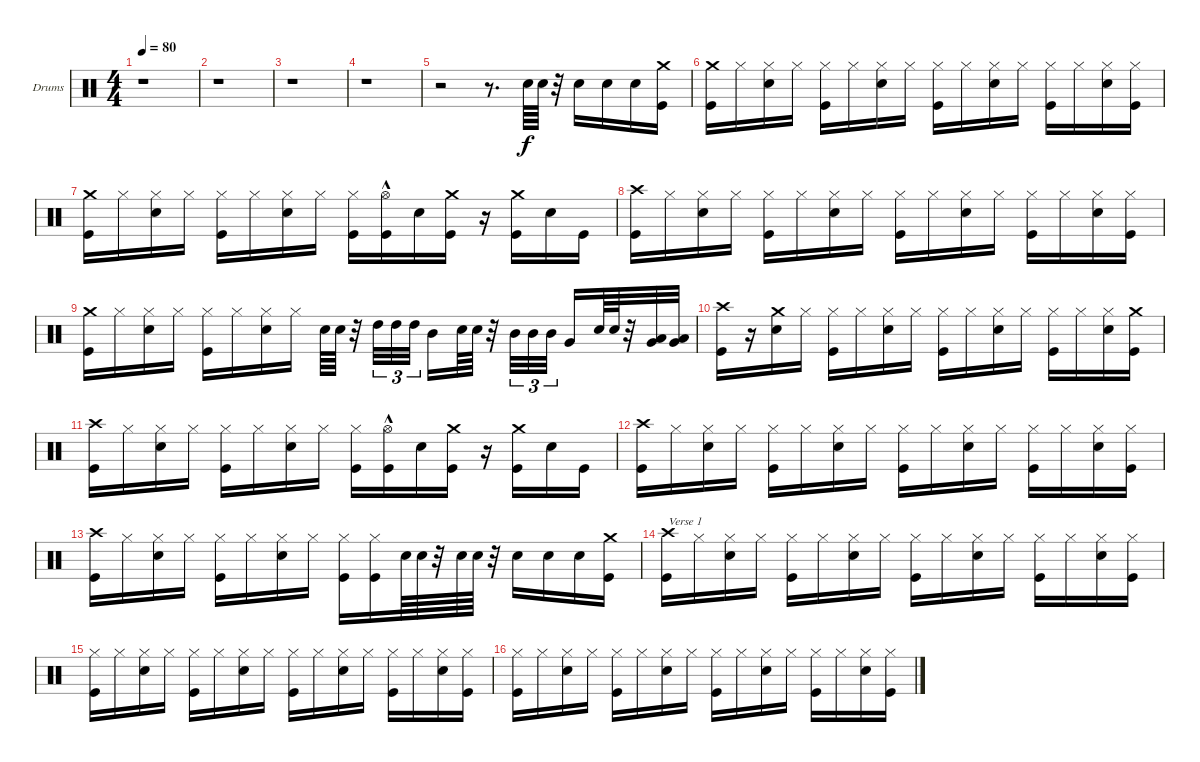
\defaultSystemsLayout 4
\bracketExtendMode groupsimilarinstruments
\firstSystemTrackNameOrientation horizontal
\otherSystemsTrackNameOrientation horizontal
\track ("Francesco Jovino" "Drums") {instrument percussion}
\staff {score}
\articulation defaults
\ts (4 4)
\tempo 80
\clef neutral
\ks c
r.1{dy f} |
r.1 |
r.1 |
r.1 |
r.2 r.8{d} "Snare (hit) 2".64 "Snare (hit) 2".64 r.32 "Snare (hit) 2".16 "Snare (hit) 2".16 "Snare (hit) 2".16 ("Kick (hit)" "Crash medium (hit)").16 |
("Kick (hit)" "Crash medium (hit)").16 "Hi-Hat (closed)".16 ("Snare (hit) 2" "Hi-Hat (closed)").16 "Hi-Hat (closed)".16 ("Kick (hit)" "Hi-Hat (closed)").16 "Hi-Hat (closed)".16 ("Snare (hit) 2" "Hi-Hat (closed)").16 "Hi-Hat (closed)".16 ("Kick (hit)" "Hi-Hat (closed)").16 "Hi-Hat (closed)".16 ("Snare (hit) 2" "Hi-Hat (closed)").16 "Hi-Hat (closed)".16 ("Kick (hit)" "Hi-Hat (closed)").16 "Hi-Hat (closed)".16 ("Snare (hit) 2" "Hi-Hat (closed)").16 ("Kick (hit)" "Hi-Hat (closed)").16 |
("Kick (hit)" "Crash medium (hit)").16 "Hi-Hat (closed)".16 ("Snare (hit) 2" "Hi-Hat (closed)").16 "Hi-Hat (closed)".16 ("Kick (hit)" "Hi-Hat (closed)").16 "Hi-Hat (closed)".16 ("Snare (hit) 2" "Hi-Hat (closed)").16 "Hi-Hat (closed)".16 ("Kick (hit)" "Hi-Hat (closed)").16 ("Hi-Hat (open)"{hac} "Kick (hit)").16 "Snare (hit) 2".16 ("Kick (hit)" "Crash medium (hit)").16 r.16 ("Kick (hit)" "Crash medium (hit)").16 "Snare (hit) 2".16 "Kick (hit)".16 |
("Kick (hit)" "Crash high (hit)").16 "Hi-Hat (closed)".16 ("Snare (hit) 2" "Hi-Hat (closed)").16 "Hi-Hat (closed)".16 ("Kick (hit)" "Hi-Hat (closed)").16 "Hi-Hat (closed)".16 ("Snare (hit) 2" "Hi-Hat (closed)").16 "Hi-Hat (closed)".16 ("Kick (hit)" "Hi-Hat (closed)").16 "Hi-Hat (closed)".16 ("Snare (hit) 2" "Hi-Hat (closed)").16 "Hi-Hat (closed)".16 ("Kick (hit)" "Hi-Hat (closed)").16 "Hi-Hat (closed)".16 ("Snare (hit) 2" "Hi-Hat (closed)").16 ("Kick (hit)" "Hi-Hat (closed)").16 |
("Kick (hit)" "Crash medium (hit)").16 "Hi-Hat (closed)".16 ("Snare (hit) 2" "Hi-Hat (closed)").16 "Hi-Hat (closed)".16 ("Kick (hit)" "Hi-Hat (closed)").16 "Hi-Hat (closed)".16 ("Snare (hit) 2" "Hi-Hat (closed)").16 "Hi-Hat (closed)".16 "Snare (hit) 2".64 "Snare (hit) 2".64 r.32 "High Tom (hit)".32{tu (3 2)} "High Tom (hit)".32{tu (3 2)} "High Tom (hit)".32{tu (3 2)} "Mid Tom (hit)".16 "Snare (hit) 2".64 "Snare (hit) 2".64 r.32 "Mid Tom (hit)".32{tu (3 2)} "Mid Tom (hit)".32{tu (3 2)} "Mid Tom (hit)".32{tu (3 2)} "Very Low Tom (hit)".16 "Snare (hit) 2".64 "Snare (hit) 2".64 r.32 ("Low Tom (hit)" "Very Low Tom (hit)").32 ("Low Tom (hit)" "Very Low Tom (hit)").32 |
("Kick (hit)" "Crash high (hit)").16 r.16 ("Snare (hit) 2" "Crash medium (hit)").16 "Hi-Hat (closed)".16 ("Kick (hit)" "Hi-Hat (closed)").16 "Hi-Hat (closed)".16 ("Snare (hit) 2" "Hi-Hat (closed)").16 "Hi-Hat (closed)".16 ("Kick (hit)" "Hi-Hat (closed)").16 "Hi-Hat (closed)".16 ("Snare (hit) 2" "Hi-Hat (closed)").16 "Hi-Hat (closed)".16 ("Kick (hit)" "Hi-Hat (closed)").16 "Hi-Hat (closed)".16 ("Snare (hit) 2" "Hi-Hat (closed)").16 ("Kick (hit)" "Crash medium (hit)").16 |
("Kick (hit)" "Crash high (hit)").16 "Hi-Hat (closed)".16 ("Snare (hit) 2" "Hi-Hat (closed)").16 "Hi-Hat (closed)".16 ("Kick (hit)" "Hi-Hat (closed)").16 "Hi-Hat (closed)".16 ("Snare (hit) 2" "Hi-Hat (closed)").16 "Hi-Hat (closed)".16 ("Kick (hit)" "Hi-Hat (closed)").16 ("Hi-Hat (open)"{hac} "Kick (hit)").16 "Snare (hit) 2".16 ("Kick (hit)" "Crash medium (hit)").16 r.16 ("Kick (hit)" "Crash medium (hit)").16 "Snare (hit) 2".16 "Kick (hit)".16 |
("Kick (hit)" "Crash high (hit)").16 "Hi-Hat (closed)".16 ("Snare (hit) 2" "Hi-Hat (closed)").16 "Hi-Hat (closed)".16 ("Kick (hit)" "Hi-Hat (closed)").16 "Hi-Hat (closed)".16 ("Snare (hit) 2" "Hi-Hat (closed)").16 "Hi-Hat (closed)".16 ("Kick (hit)" "Hi-Hat (closed)").16 "Hi-Hat (closed)".16 ("Snare (hit) 2" "Hi-Hat (closed)").16 "Hi-Hat (closed)".16 ("Kick (hit)" "Hi-Hat (closed)").16 "Hi-Hat (closed)".16 ("Snare (hit) 2" "Hi-Hat (closed)").16 ("Kick (hit)" "Hi-Hat (closed)").16 |
("Kick (hit)" "Crash high (hit)").16 "Hi-Hat (closed)".16 ("Snare (hit) 2" "Hi-Hat (closed)").16 "Hi-Hat (closed)".16 ("Kick (hit)" "Hi-Hat (closed)").16 "Hi-Hat (closed)".16 ("Snare (hit) 2" "Hi-Hat (closed)").16 "Hi-Hat (closed)".16 ("Hi-Hat (closed)" "Kick (hit)").16 ("Kick (hit)" "Hi-Hat (closed)").16 "Snare (hit) 2".64 "Snare (hit) 2".64 r.32 "Snare (hit) 2".64 "Snare (hit) 2".64 r.32 "Snare (hit) 2".16 "Snare (hit) 2".16 "Snare (hit) 2".16 ("Kick (hit)" "Crash medium (hit)").16 |
("Kick (hit)" "Crash high (hit)").16{txt "Verse 1"} "Hi-Hat (closed)".16 ("Snare (hit) 2" "Hi-Hat (closed)").16 "Hi-Hat (closed)".16 ("Kick (hit)" "Hi-Hat (closed)").16 "Hi-Hat (closed)".16 ("Snare (hit) 2" "Hi-Hat (closed)").16 "Hi-Hat (closed)".16 ("Kick (hit)" "Hi-Hat (closed)").16 "Hi-Hat (closed)".16 ("Snare (hit) 2" "Hi-Hat (closed)").16 "Hi-Hat (closed)".16 ("Kick (hit)" "Hi-Hat (closed)").16 "Hi-Hat (closed)".16 ("Snare (hit) 2" "Hi-Hat (closed)").16 ("Kick (hit)" "Hi-Hat (closed)").16 |
("Kick (hit)" "Hi-Hat (closed)").16 "Hi-Hat (closed)".16 ("Snare (hit) 2" "Hi-Hat (closed)").16 "Hi-Hat (closed)".16 ("Kick (hit)" "Hi-Hat (closed)").16 "Hi-Hat (closed)".16 ("Snare (hit) 2" "Hi-Hat (closed)").16 "Hi-Hat (closed)".16 ("Kick (hit)" "Hi-Hat (closed)").16 "Hi-Hat (closed)".16 ("Snare (hit) 2" "Hi-Hat (closed)").16 "Hi-Hat (closed)".16 ("Kick (hit)" "Hi-Hat (closed)").16 "Hi-Hat (closed)".16 ("Snare (hit) 2" "Hi-Hat (closed)").16 ("Kick (hit)" "Hi-Hat (closed)").16 |
("Kick (hit)" "Hi-Hat (closed)").16 "Hi-Hat (closed)".16 ("Snare (hit) 2" "Hi-Hat (closed)").16 "Hi-Hat (closed)".16 ("Kick (hit)" "Hi-Hat (closed)").16 "Hi-Hat (closed)".16 ("Snare (hit) 2" "Hi-Hat (closed)").16 "Hi-Hat (closed)".16 ("Kick (hit)" "Hi-Hat (closed)").16 "Hi-Hat (closed)".16 ("Snare (hit) 2" "Hi-Hat (closed)").16 "Hi-Hat (closed)".16 ("Kick (hit)" "Hi-Hat (closed)").16 "Hi-Hat (closed)".16 ("Snare (hit) 2" "Hi-Hat (closed)").16 ("Kick (hit)" "Hi-Hat (closed)").16
